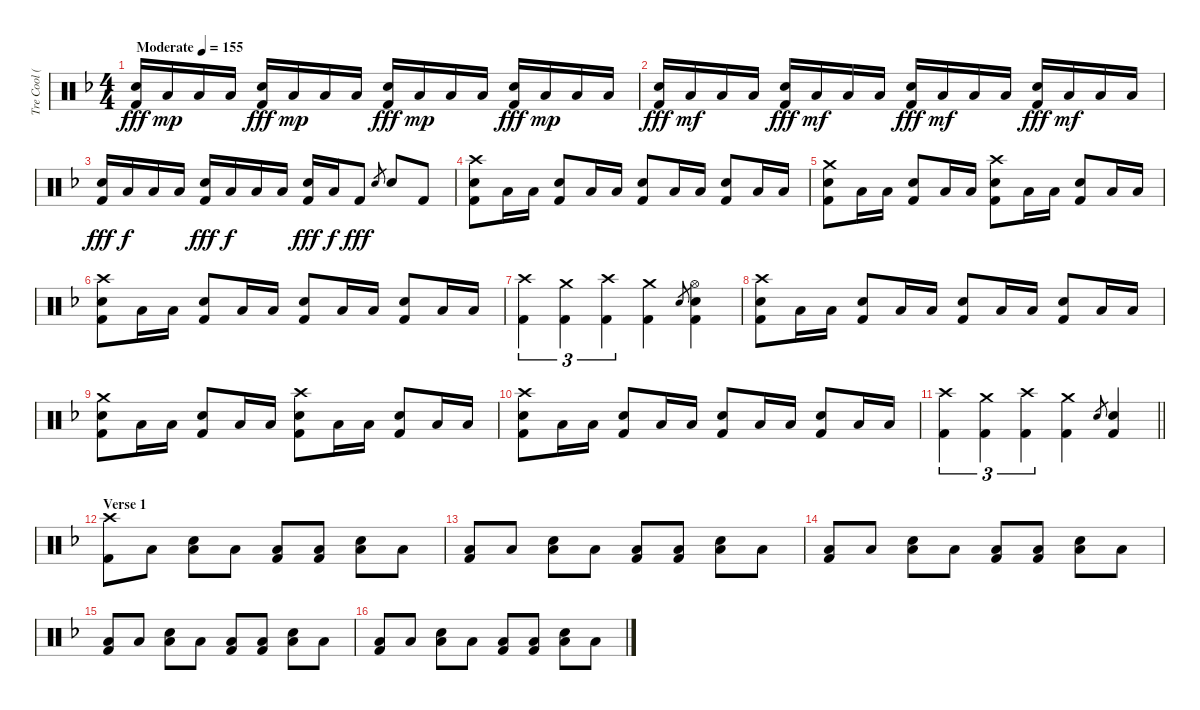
\track ("Tre Cool (Drums)" "Tre Cool (") {instrument percussion}
\staff {score}
\articulation defaults
\ts (4 4)
\tempo (155 "Moderate")
\clef neutral
\ks f
("Electric Snare (hit)" "Kick (hit) 2").16{dy fff volume 0} "Low Floor Tom (hit)".16{dy mp volume 16} "Low Floor Tom (hit)".16 "Low Floor Tom (hit)".16 ("Electric Snare (hit)" "Kick (hit) 2").16{dy fff} "Low Floor Tom (hit)".16{dy mp} "Low Floor Tom (hit)".16 "Low Floor Tom (hit)".16 ("Electric Snare (hit)" "Kick (hit) 2").16{dy fff} "Low Floor Tom (hit)".16{dy mp} "Low Floor Tom (hit)".16 "Low Floor Tom (hit)".16 ("Electric Snare (hit)" "Kick (hit) 2").16{dy fff} "Low Floor Tom (hit)".16{dy mp} "Low Floor Tom (hit)".16 "Low Floor Tom (hit)".16 |
("Electric Snare (hit)" "Kick (hit) 2").16{dy fff} "Low Floor Tom (hit)".16{dy mf} "Low Floor Tom (hit)".16 "Low Floor Tom (hit)".16 ("Electric Snare (hit)" "Kick (hit) 2").16{dy fff} "Low Floor Tom (hit)".16{dy mf} "Low Floor Tom (hit)".16 "Low Floor Tom (hit)".16 ("Electric Snare (hit)" "Kick (hit) 2").16{dy fff} "Low Floor Tom (hit)".16{dy mf} "Low Floor Tom (hit)".16 "Low Floor Tom (hit)".16 ("Electric Snare (hit)" "Kick (hit) 2").16{dy fff} "Low Floor Tom (hit)".16{dy mf} "Low Floor Tom (hit)".16 "Low Floor Tom (hit)".16 |
("Electric Snare (hit)" "Kick (hit) 2").16{dy fff} "Low Floor Tom (hit)".16{dy f} "Low Floor Tom (hit)".16 "Low Floor Tom (hit)".16 ("Electric Snare (hit)" "Kick (hit) 2").16{dy fff} "Low Floor Tom (hit)".16{dy f} "Low Floor Tom (hit)".16 "Low Floor Tom (hit)".16 ("Electric Snare (hit)" "Kick (hit) 2").16{dy fff} "Low Floor Tom (hit)".16{dy f} "Kick (hit) 2".8{dy fff} "Electric Snare (hit)".8{gr} "Electric Snare (hit)".8 "Kick (hit) 2".8 |
("Crash high (hit)" "Electric Snare (hit)" "Kick (hit) 2").8 "Low Floor Tom (hit)".16 "Low Floor Tom (hit)".16 ("Electric Snare (hit)" "Kick (hit) 2").8 "Low Floor Tom (hit)".16 "Low Floor Tom (hit)".16 ("Electric Snare (hit)" "Kick (hit) 2").8 "Low Floor Tom (hit)".16 "Low Floor Tom (hit)".16 ("Electric Snare (hit)" "Kick (hit) 2").8 "Low Floor Tom (hit)".16 "Low Floor Tom (hit)".16 |
("Crash medium (hit)" "Electric Snare (hit)" "Kick (hit) 2").8 "Low Floor Tom (hit)".16 "Low Floor Tom (hit)".16 ("Electric Snare (hit)" "Kick (hit) 2").8 "Low Floor Tom (hit)".16 "Low Floor Tom (hit)".16 ("Crash high (hit)" "Electric Snare (hit)" "Kick (hit) 2").8 "Low Floor Tom (hit)".16 "Low Floor Tom (hit)".16 ("Electric Snare (hit)" "Kick (hit) 2").8 "Low Floor Tom (hit)".16 "Low Floor Tom (hit)".16 |
("Crash high (hit)" "Electric Snare (hit)" "Kick (hit) 2").8 "Low Floor Tom (hit)".16 "Low Floor Tom (hit)".16 ("Electric Snare (hit)" "Kick (hit) 2").8 "Low Floor Tom (hit)".16 "Low Floor Tom (hit)".16 ("Electric Snare (hit)" "Kick (hit) 2").8 "Low Floor Tom (hit)".16 "Low Floor Tom (hit)".16 ("Electric Snare (hit)" "Kick (hit) 2").8 "Low Floor Tom (hit)".16 "Low Floor Tom (hit)".16 |
("Crash high (hit)" "Kick (hit) 2").4{tu (3 2)} ("Crash medium (hit)" "Kick (hit) 2").4{tu (3 2)} ("Crash high (hit)" "Kick (hit) 2").4{tu (3 2)} ("Crash medium (hit)" "Kick (hit) 2").4 "Electric Snare (hit)".8{gr} ("Hi-Hat (open)" "Electric Snare (hit)" "Kick (hit) 2").4 |
("Crash high (hit)" "Electric Snare (hit)" "Kick (hit) 2").8 "Low Floor Tom (hit)".16 "Low Floor Tom (hit)".16 ("Electric Snare (hit)" "Kick (hit) 2").8 "Low Floor Tom (hit)".16 "Low Floor Tom (hit)".16 ("Electric Snare (hit)" "Kick (hit) 2").8 "Low Floor Tom (hit)".16 "Low Floor Tom (hit)".16 ("Electric Snare (hit)" "Kick (hit) 2").8 "Low Floor Tom (hit)".16 "Low Floor Tom (hit)".16 |
("Crash medium (hit)" "Electric Snare (hit)" "Kick (hit) 2").8 "Low Floor Tom (hit)".16 "Low Floor Tom (hit)".16 ("Electric Snare (hit)" "Kick (hit) 2").8 "Low Floor Tom (hit)".16 "Low Floor Tom (hit)".16 ("Crash high (hit)" "Electric Snare (hit)" "Kick (hit) 2").8 "Low Floor Tom (hit)".16 "Low Floor Tom (hit)".16 ("Electric Snare (hit)" "Kick (hit) 2").8 "Low Floor Tom (hit)".16 "Low Floor Tom (hit)".16 |
("Crash high (hit)" "Electric Snare (hit)" "Kick (hit) 2").8 "Low Floor Tom (hit)".16 "Low Floor Tom (hit)".16 ("Electric Snare (hit)" "Kick (hit) 2").8 "Low Floor Tom (hit)".16 "Low Floor Tom (hit)".16 ("Electric Snare (hit)" "Kick (hit) 2").8 "Low Floor Tom (hit)".16 "Low Floor Tom (hit)".16 ("Electric Snare (hit)" "Kick (hit) 2").8 "Low Floor Tom (hit)".16 "Low Floor Tom (hit)".16 |
\barLineRight lightlight
("Crash high (hit)" "Kick (hit) 2").4{tu (3 2)} ("Crash medium (hit)" "Kick (hit) 2").4{tu (3 2)} ("Crash high (hit)" "Kick (hit) 2").4{tu (3 2)} ("Crash medium (hit)" "Kick (hit) 2").4 "Electric Snare (hit)".8{gr} ("Electric Snare (hit)" "Kick (hit) 2").4 |
\section ("" "Verse 1")
("Crash high (hit)" "Kick (hit) 2").8 "Low Floor Tom (hit)".8 ("Low Floor Tom (hit)" "Electric Snare (hit)").8 "Low Floor Tom (hit)".8 ("Low Floor Tom (hit)" "Kick (hit) 2").8 ("Low Floor Tom (hit)" "Kick (hit) 2").8 ("Low Floor Tom (hit)" "Electric Snare (hit)").8 "Low Floor Tom (hit)".8 |
("Low Floor Tom (hit)" "Kick (hit) 2").8 "Low Floor Tom (hit)".8 ("Low Floor Tom (hit)" "Electric Snare (hit)").8 "Low Floor Tom (hit)".8 ("Low Floor Tom (hit)" "Kick (hit) 2").8 ("Low Floor Tom (hit)" "Kick (hit) 2").8 ("Low Floor Tom (hit)" "Electric Snare (hit)").8 "Low Floor Tom (hit)".8 |
("Low Floor Tom (hit)" "Kick (hit) 2").8 "Low Floor Tom (hit)".8 ("Low Floor Tom (hit)" "Electric Snare (hit)").8 "Low Floor Tom (hit)".8 ("Low Floor Tom (hit)" "Kick (hit) 2").8 ("Low Floor Tom (hit)" "Kick (hit) 2").8 ("Low Floor Tom (hit)" "Electric Snare (hit)").8 "Low Floor Tom (hit)".8 |
("Low Floor Tom (hit)" "Kick (hit) 2").8 "Low Floor Tom (hit)".8 ("Low Floor Tom (hit)" "Electric Snare (hit)").8 "Low Floor Tom (hit)".8 ("Low Floor Tom (hit)" "Kick (hit) 2").8 ("Low Floor Tom (hit)" "Kick (hit) 2").8 ("Low Floor Tom (hit)" "Electric Snare (hit)").8 "Low Floor Tom (hit)".8 |
("Low Floor Tom (hit)" "Kick (hit) 2").8 "Low Floor Tom (hit)".8 ("Low Floor Tom (hit)" "Electric Snare (hit)").8 "Low Floor Tom (hit)".8 ("Low Floor Tom (hit)" "Kick (hit) 2").8 ("Low Floor Tom (hit)" "Kick (hit) 2").8 ("Low Floor Tom (hit)" "Electric Snare (hit)").8 "Low Floor Tom (hit)".8
